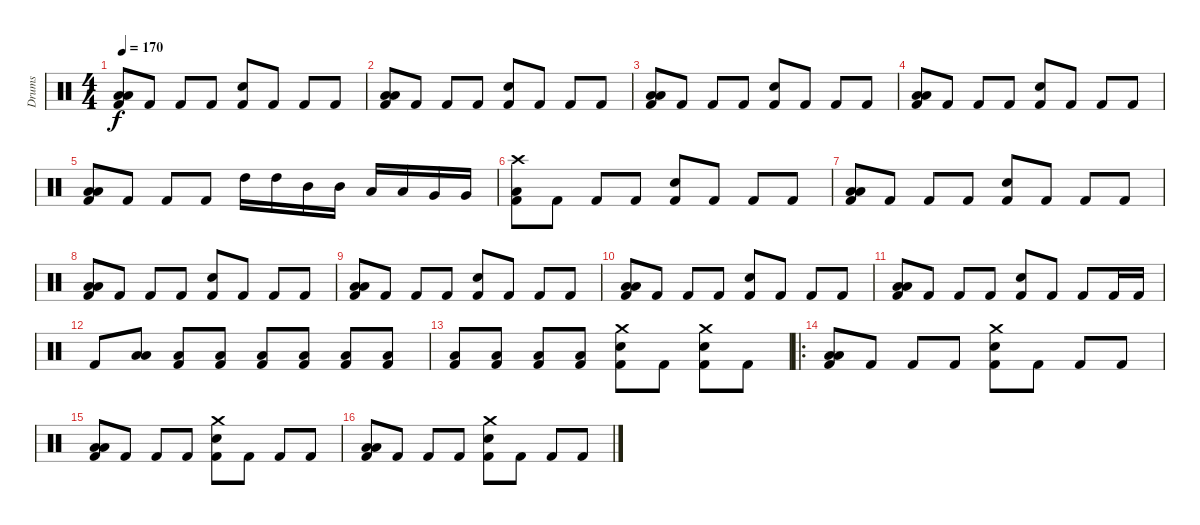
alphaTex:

\track ("Drums" "Drums") {instrument percussion}
\staff {score}
\articulation defaults
\ts (4 4)
\tempo 170
\clef neutral
\ks c
("Low Tom (hit)" "Low Tom (hit)" "Kick (hit) 2").8{dy f} "Kick (hit) 2".8 "Kick (hit) 2".8 "Kick (hit) 2".8 ("Electric Snare (hit)" "Kick (hit) 2").8 "Kick (hit) 2".8 "Kick (hit) 2".8 "Kick (hit) 2".8 |
("Low Tom (hit)" "Low Tom (hit)" "Kick (hit) 2").8 "Kick (hit) 2".8 "Kick (hit) 2".8 "Kick (hit) 2".8 ("Electric Snare (hit)" "Kick (hit) 2").8 "Kick (hit) 2".8 "Kick (hit) 2".8 "Kick (hit) 2".8 |
("Low Tom (hit)" "Low Tom (hit)" "Kick (hit) 2").8 "Kick (hit) 2".8 "Kick (hit) 2".8 "Kick (hit) 2".8 ("Electric Snare (hit)" "Kick (hit) 2").8 "Kick (hit) 2".8 "Kick (hit) 2".8 "Kick (hit) 2".8 |
("Low Tom (hit)" "Low Tom (hit)" "Kick (hit) 2").8 "Kick (hit) 2".8 "Kick (hit) 2".8 "Kick (hit) 2".8 ("Electric Snare (hit)" "Kick (hit) 2").8 "Kick (hit) 2".8 "Kick (hit) 2".8 "Kick (hit) 2".8 |
("Low Tom (hit)" "Low Tom (hit)" "Kick (hit) 2").8 "Kick (hit) 2".8 "Kick (hit) 2".8 "Kick (hit) 2".8 "High Tom (hit)".16 "High Tom (hit)".16 "Mid Tom (hit)".16 "Mid Tom (hit)".16 "Low Tom (hit)".16 "Low Tom (hit)".16 "Very Low Tom (hit)".16 "Very Low Tom (hit)".16 |
("Crash high (hit)" "Low Tom (hit)" "Kick (hit) 2").8 "Kick (hit) 2".8 "Kick (hit) 2".8 "Kick (hit) 2".8 ("Electric Snare (hit)" "Kick (hit) 2").8 "Kick (hit) 2".8 "Kick (hit) 2".8 "Kick (hit) 2".8 |
("Low Tom (hit)" "Low Tom (hit)" "Kick (hit) 2").8 "Kick (hit) 2".8 "Kick (hit) 2".8 "Kick (hit) 2".8 ("Electric Snare (hit)" "Kick (hit) 2").8 "Kick (hit) 2".8 "Kick (hit) 2".8 "Kick (hit) 2".8 |
("Low Tom (hit)" "Low Tom (hit)" "Kick (hit) 2").8 "Kick (hit) 2".8 "Kick (hit) 2".8 "Kick (hit) 2".8 ("Electric Snare (hit)" "Kick (hit) 2").8 "Kick (hit) 2".8 "Kick (hit) 2".8 "Kick (hit) 2".8 |
("Low Tom (hit)" "Low Tom (hit)" "Kick (hit) 2").8 "Kick (hit) 2".8 "Kick (hit) 2".8 "Kick (hit) 2".8 ("Electric Snare (hit)" "Kick (hit) 2").8 "Kick (hit) 2".8 "Kick (hit) 2".8 "Kick (hit) 2".8 |
("Low Tom (hit)" "Low Tom (hit)" "Kick (hit) 2").8 "Kick (hit) 2".8 "Kick (hit) 2".8 "Kick (hit) 2".8 ("Electric Snare (hit)" "Kick (hit) 2").8 "Kick (hit) 2".8 "Kick (hit) 2".8 "Kick (hit) 2".8 |
("Low Tom (hit)" "Low Tom (hit)" "Kick (hit) 2").8 "Kick (hit) 2".8 "Kick (hit) 2".8 "Kick (hit) 2".8 ("Electric Snare (hit)" "Kick (hit) 2").8 "Kick (hit) 2".8 "Kick (hit) 2".8 "Kick (hit) 2".16 "Kick (hit) 2".16 |
"Kick (hit) 2".8 ("Low Tom (hit)" "Low Tom (hit)").8 ("Low Tom (hit)" "Kick (hit) 2").8 ("Low Tom (hit)" "Kick (hit) 2").8 ("Low Tom (hit)" "Kick (hit) 2").8 ("Low Tom (hit)" "Kick (hit) 2").8 ("Low Tom (hit)" "Kick (hit) 2").8 ("Low Tom (hit)" "Kick (hit) 2").8 |
("Low Tom (hit)" "Kick (hit) 2").8 ("Low Tom (hit)" "Kick (hit) 2").8 ("Low Tom (hit)" "Kick (hit) 2").8 ("Low Tom (hit)" "Kick (hit) 2").8 ("Crash medium (hit)" "Electric Snare (hit)" "Kick (hit) 2").8 "Kick (hit) 2".8 ("Crash medium (hit)" "Electric Snare (hit)" "Kick (hit) 2").8 "Kick (hit) 2".8 |
\ro
("Low Tom (hit)" "Low Tom (hit)" "Kick (hit) 2").8 "Kick (hit) 2".8 "Kick (hit) 2".8 "Kick (hit) 2".8 ("Crash medium (hit)" "Electric Snare (hit)" "Kick (hit) 2").8 "Kick (hit) 2".8 "Kick (hit) 2".8 "Kick (hit) 2".8 |
("Low Tom (hit)" "Low Tom (hit)" "Kick (hit) 2").8 "Kick (hit) 2".8 "Kick (hit) 2".8 "Kick (hit) 2".8 ("Crash medium (hit)" "Electric Snare (hit)" "Kick (hit) 2").8 "Kick (hit) 2".8 "Kick (hit) 2".8 "Kick (hit) 2".8 |
("Low Tom (hit)" "Low Tom (hit)" "Kick (hit) 2").8 "Kick (hit) 2".8 "Kick (hit) 2".8 "Kick (hit) 2".8 ("Crash medium (hit)" "Electric Snare (hit)" "Kick (hit) 2").8 "Kick (hit) 2".8 "Kick (hit) 2".8 "Kick (hit) 2".8
